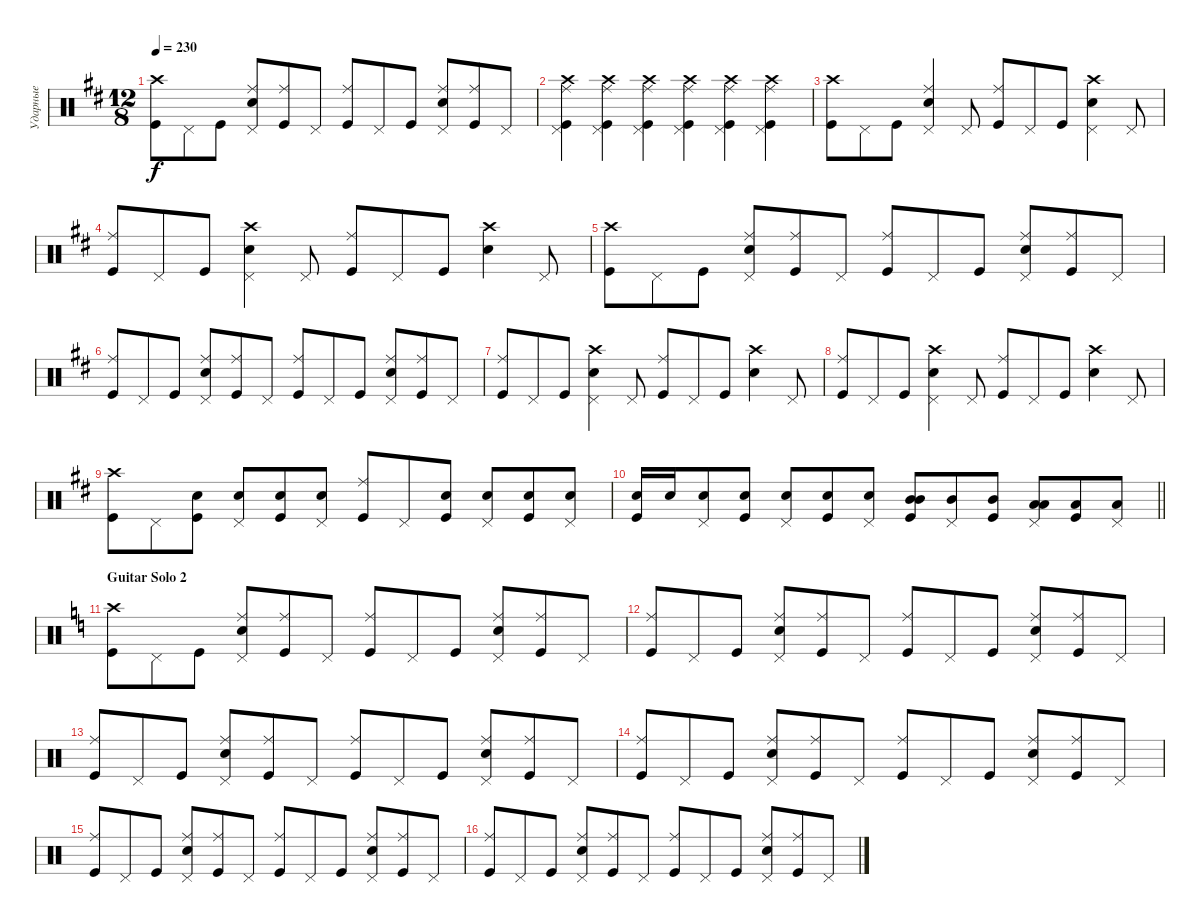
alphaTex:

\track ("Ударные" "Ударные") {instrument percussion}
\staff {score}
\articulation defaults
\ts (12 8)
\tempo 230
\clef neutral
\ks bminor
("Kick (hit)" "Crash high (hit)").8{dy f} "Pedal Hi-Hat (hit)".8 "Kick (hit)".8 ("Snare (hit) 2" "Ride (middle)" "Pedal Hi-Hat (hit)").8 ("Ride (middle)" "Kick (hit)").8 "Pedal Hi-Hat (hit)".8 ("Kick (hit)" "Ride (middle)").8 "Pedal Hi-Hat (hit)".8 "Kick (hit)".8 ("Snare (hit) 2" "Ride (middle)" "Pedal Hi-Hat (hit)").8 ("Ride (middle)" "Kick (hit)").8 "Pedal Hi-Hat (hit)".8 |
("Kick (hit)" "Crash high (hit)" "Pedal Hi-Hat (hit)" "Ride (middle)").4 ("Kick (hit)" "Crash high (hit)" "Pedal Hi-Hat (hit)" "Ride (middle)").4 ("Kick (hit)" "Crash high (hit)" "Pedal Hi-Hat (hit)" "Ride (middle)").4 ("Kick (hit)" "Crash high (hit)" "Pedal Hi-Hat (hit)" "Ride (middle)").4 ("Kick (hit)" "Crash high (hit)" "Pedal Hi-Hat (hit)" "Ride (middle)").4 ("Kick (hit)" "Crash high (hit)" "Pedal Hi-Hat (hit)" "Ride (middle)").4 |
("Kick (hit)" "Crash high (hit)").8 "Pedal Hi-Hat (hit)".8 "Kick (hit)".8 ("Snare (hit) 2" "Ride (middle)" "Pedal Hi-Hat (hit)").4 "Pedal Hi-Hat (hit)".8 ("Kick (hit)" "Ride (middle)").8 "Pedal Hi-Hat (hit)".8 "Kick (hit)".8 ("Snare (hit) 2" "Crash high (hit)" "Pedal Hi-Hat (hit)").4 "Pedal Hi-Hat (hit)".8 |
("Kick (hit)" "Ride (middle)").8 "Pedal Hi-Hat (hit)".8 "Kick (hit)".8 ("Snare (hit) 2" "Crash high (hit)" "Pedal Hi-Hat (hit)").4 "Pedal Hi-Hat (hit)".8 ("Kick (hit)" "Ride (middle)").8 "Pedal Hi-Hat (hit)".8 "Kick (hit)".8 ("Snare (hit) 2" "Crash high (hit)").4 "Pedal Hi-Hat (hit)".8 |
("Kick (hit)" "Crash high (hit)").8 "Pedal Hi-Hat (hit)".8 "Kick (hit)".8 ("Snare (hit) 2" "Ride (middle)" "Pedal Hi-Hat (hit)").8 ("Ride (middle)" "Kick (hit)").8 "Pedal Hi-Hat (hit)".8 ("Kick (hit)" "Ride (middle)").8 "Pedal Hi-Hat (hit)".8 "Kick (hit)".8 ("Snare (hit) 2" "Ride (middle)" "Pedal Hi-Hat (hit)").8 ("Ride (middle)" "Kick (hit)").8 "Pedal Hi-Hat (hit)".8 |
("Kick (hit)" "Ride (middle)").8 "Pedal Hi-Hat (hit)".8 "Kick (hit)".8 ("Snare (hit) 2" "Ride (middle)" "Pedal Hi-Hat (hit)").8 ("Ride (middle)" "Kick (hit)").8 "Pedal Hi-Hat (hit)".8 ("Kick (hit)" "Ride (middle)").8 "Pedal Hi-Hat (hit)".8 "Kick (hit)".8 ("Snare (hit) 2" "Ride (middle)" "Pedal Hi-Hat (hit)").8 ("Ride (middle)" "Kick (hit)").8 "Pedal Hi-Hat (hit)".8 |
("Kick (hit)" "Ride (middle)").8 "Pedal Hi-Hat (hit)".8 "Kick (hit)".8 ("Snare (hit) 2" "Crash high (hit)" "Pedal Hi-Hat (hit)").4 "Pedal Hi-Hat (hit)".8 ("Kick (hit)" "Ride (middle)").8 "Pedal Hi-Hat (hit)".8 "Kick (hit)".8 ("Snare (hit) 2" "Crash high (hit)").4 "Pedal Hi-Hat (hit)".8 |
("Kick (hit)" "Ride (middle)").8 "Pedal Hi-Hat (hit)".8 "Kick (hit)".8 ("Snare (hit) 2" "Crash high (hit)" "Pedal Hi-Hat (hit)").4 "Pedal Hi-Hat (hit)".8 ("Kick (hit)" "Ride (middle)").8 "Pedal Hi-Hat (hit)".8 "Kick (hit)".8 ("Snare (hit) 2" "Crash high (hit)").4 "Pedal Hi-Hat (hit)".8 |
("Kick (hit)" "Crash high (hit)").8 "Pedal Hi-Hat (hit)".8 ("Snare (hit) 2" "Kick (hit)").8 ("Snare (hit) 2" "Pedal Hi-Hat (hit)").8 ("Snare (hit) 2" "Kick (hit)").8 ("Snare (hit) 2" "Pedal Hi-Hat (hit)").8 ("Kick (hit)" "Ride (middle)").8 "Pedal Hi-Hat (hit)".8 ("Snare (hit) 2" "Kick (hit)").8 ("Snare (hit) 2" "Pedal Hi-Hat (hit)").8 ("Snare (hit) 2" "Kick (hit)").8 ("Snare (hit) 2" "Pedal Hi-Hat (hit)").8 |
\barLineRight lightlight
("Snare (hit) 2" "Kick (hit)").16 "Snare (hit) 2".16 ("Snare (hit) 2" "Pedal Hi-Hat (hit)").8 ("Snare (hit) 2" "Kick (hit)").8 ("Snare (hit) 2" "Pedal Hi-Hat (hit)").8 ("Snare (hit) 2" "Kick (hit)").8 ("Snare (hit) 2" "Pedal Hi-Hat (hit)").8 ("Mid Tom (hit)" "Kick (hit)" "Mid Tom (hit)").8{bd 240} ("Mid Tom (hit)" "Pedal Hi-Hat (hit)").8 ("Mid Tom (hit)" "Kick (hit)").8 ("Pedal Hi-Hat (hit)" "Low Tom (hit)" "Low Tom (hit)").8{bd 240} ("Kick (hit)" "Low Tom (hit)").8 ("Pedal Hi-Hat (hit)" "Low Tom (hit)").8 |
\section ("" "Guitar Solo 2")
\ks aminor
("Kick (hit)" "Crash high (hit)").8 "Pedal Hi-Hat (hit)".8 "Kick (hit)".8 ("Snare (hit) 2" "Ride (middle)" "Pedal Hi-Hat (hit)").8 ("Ride (middle)" "Kick (hit)").8 "Pedal Hi-Hat (hit)".8 ("Kick (hit)" "Ride (middle)").8 "Pedal Hi-Hat (hit)".8 "Kick (hit)".8 ("Snare (hit) 2" "Ride (middle)" "Pedal Hi-Hat (hit)").8 ("Kick (hit)" "Ride (middle)").8 "Pedal Hi-Hat (hit)".8 |
("Kick (hit)" "Ride (middle)").8 "Pedal Hi-Hat (hit)".8 "Kick (hit)".8 ("Snare (hit) 2" "Ride (middle)" "Pedal Hi-Hat (hit)").8 ("Ride (middle)" "Kick (hit)").8 "Pedal Hi-Hat (hit)".8 ("Kick (hit)" "Ride (middle)").8 "Pedal Hi-Hat (hit)".8 "Kick (hit)".8 ("Snare (hit) 2" "Ride (middle)" "Pedal Hi-Hat (hit)").8 ("Kick (hit)" "Ride (middle)").8 "Pedal Hi-Hat (hit)".8 |
("Kick (hit)" "Ride (middle)").8 "Pedal Hi-Hat (hit)".8 "Kick (hit)".8 ("Snare (hit) 2" "Ride (middle)" "Pedal Hi-Hat (hit)").8 ("Ride (middle)" "Kick (hit)").8 "Pedal Hi-Hat (hit)".8 ("Kick (hit)" "Ride (middle)").8 "Pedal Hi-Hat (hit)".8 "Kick (hit)".8 ("Snare (hit) 2" "Ride (middle)" "Pedal Hi-Hat (hit)").8 ("Kick (hit)" "Ride (middle)").8 "Pedal Hi-Hat (hit)".8 |
("Kick (hit)" "Ride (middle)").8 "Pedal Hi-Hat (hit)".8 "Kick (hit)".8 ("Snare (hit) 2" "Ride (middle)" "Pedal Hi-Hat (hit)").8 ("Ride (middle)" "Kick (hit)").8 "Pedal Hi-Hat (hit)".8 ("Kick (hit)" "Ride (middle)").8 "Pedal Hi-Hat (hit)".8 "Kick (hit)".8 ("Snare (hit) 2" "Ride (middle)" "Pedal Hi-Hat (hit)").8 ("Kick (hit)" "Ride (middle)").8 "Pedal Hi-Hat (hit)".8 |
("Kick (hit)" "Ride (middle)").8 "Pedal Hi-Hat (hit)".8 "Kick (hit)".8 ("Snare (hit) 2" "Ride (middle)" "Pedal Hi-Hat (hit)").8 ("Ride (middle)" "Kick (hit)").8 "Pedal Hi-Hat (hit)".8 ("Kick (hit)" "Ride (middle)").8 "Pedal Hi-Hat (hit)".8 "Kick (hit)".8 ("Snare (hit) 2" "Ride (middle)" "Pedal Hi-Hat (hit)").8 ("Kick (hit)" "Ride (middle)").8 "Pedal Hi-Hat (hit)".8 |
("Kick (hit)" "Ride (middle)").8 "Pedal Hi-Hat (hit)".8 "Kick (hit)".8 ("Snare (hit) 2" "Ride (middle)" "Pedal Hi-Hat (hit)").8 ("Ride (middle)" "Kick (hit)").8 "Pedal Hi-Hat (hit)".8 ("Kick (hit)" "Ride (middle)").8 "Pedal Hi-Hat (hit)".8 "Kick (hit)".8 ("Snare (hit) 2" "Ride (middle)" "Pedal Hi-Hat (hit)").8 ("Kick (hit)" "Ride (middle)").8 "Pedal Hi-Hat (hit)".8
